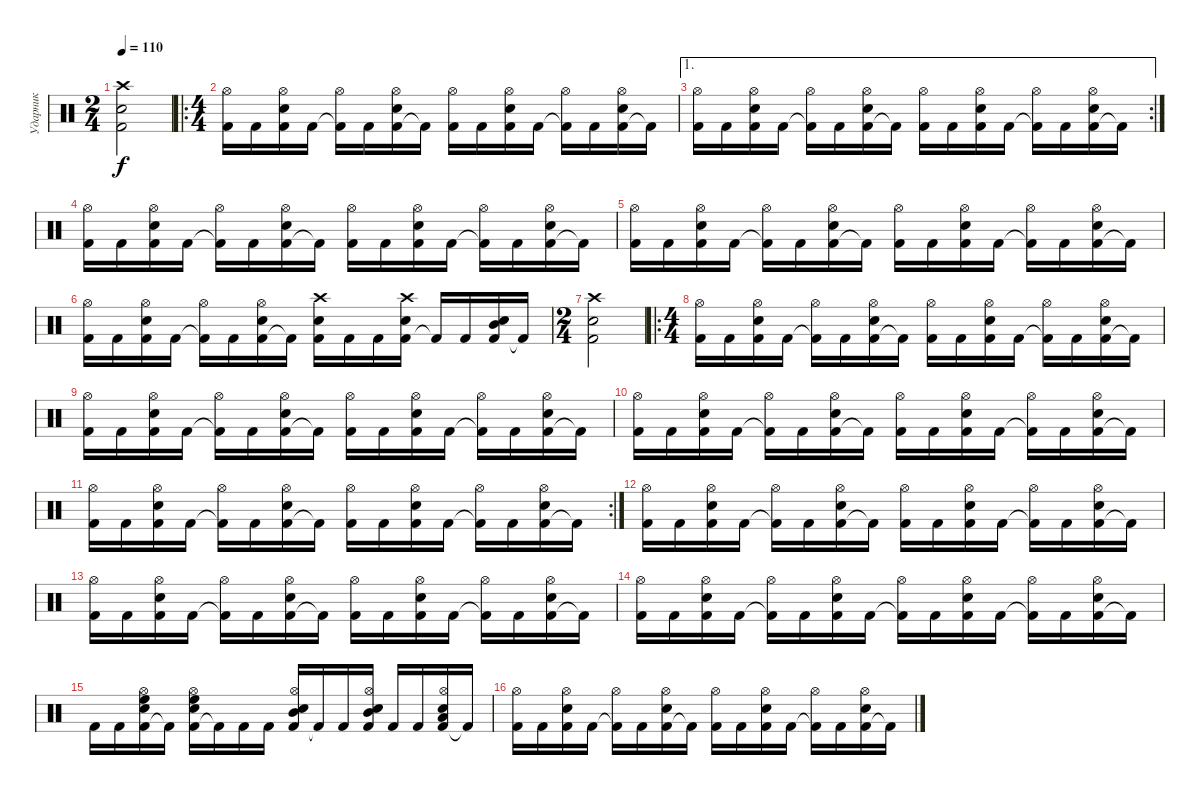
\track ("Ударник" "Ударник") {instrument percussion}
\staff
\articulation defaults
\ts (2 4)
\tempo 110
\clef neutral
\ks c
("Kick (hit) 2" "Snare (hit) 2" "Crash high (hit)").2{dy f} |
\ro
\ts (4 4)
("Kick (hit) 2" "Hi-Hat (open)").16 "Kick (hit) 2".16 ("Kick (hit) 2" "Snare (hit) 2" "Hi-Hat (open)").16 "Kick (hit) 2".16 ("Kick (hit) 2"{t} "Hi-Hat (open)").16 "Kick (hit) 2".16 ("Kick (hit) 2" "Snare (hit) 2" "Hi-Hat (open)").16 "Kick (hit) 2"{t}.16 ("Kick (hit) 2" "Hi-Hat (open)").16 "Kick (hit) 2".16 ("Kick (hit) 2" "Snare (hit) 2" "Hi-Hat (open)").16 "Kick (hit) 2".16 ("Kick (hit) 2"{t} "Hi-Hat (open)").16 "Kick (hit) 2".16 ("Kick (hit) 2" "Snare (hit) 2" "Hi-Hat (open)").16 "Kick (hit) 2"{t}.16 |
\ae 1
\rc 2
("Kick (hit) 2" "Hi-Hat (open)").16 "Kick (hit) 2".16 ("Kick (hit) 2" "Snare (hit) 2" "Hi-Hat (open)").16 "Kick (hit) 2".16 ("Kick (hit) 2"{t} "Hi-Hat (open)").16 "Kick (hit) 2".16 ("Kick (hit) 2" "Snare (hit) 2" "Hi-Hat (open)").16 "Kick (hit) 2"{t}.16 ("Kick (hit) 2" "Hi-Hat (open)").16 "Kick (hit) 2".16 ("Kick (hit) 2" "Snare (hit) 2" "Hi-Hat (open)").16 "Kick (hit) 2".16 ("Kick (hit) 2"{t} "Hi-Hat (open)").16 "Kick (hit) 2".16 ("Kick (hit) 2" "Snare (hit) 2" "Hi-Hat (open)").16 "Kick (hit) 2"{t}.16 |
("Kick (hit) 2" "Hi-Hat (open)").16 "Kick (hit) 2".16 ("Kick (hit) 2" "Snare (hit) 2" "Hi-Hat (open)").16 "Kick (hit) 2".16 ("Kick (hit) 2"{t} "Hi-Hat (open)").16 "Kick (hit) 2".16 ("Kick (hit) 2" "Snare (hit) 2" "Hi-Hat (open)").16 "Kick (hit) 2"{t}.16 ("Kick (hit) 2" "Hi-Hat (open)").16 "Kick (hit) 2".16 ("Kick (hit) 2" "Snare (hit) 2" "Hi-Hat (open)").16 "Kick (hit) 2".16 ("Kick (hit) 2"{t} "Hi-Hat (open)").16 "Kick (hit) 2".16 ("Kick (hit) 2" "Snare (hit) 2" "Hi-Hat (open)").16 "Kick (hit) 2"{t}.16 |
("Kick (hit) 2" "Hi-Hat (open)").16 "Kick (hit) 2".16 ("Kick (hit) 2" "Snare (hit) 2" "Hi-Hat (open)").16 "Kick (hit) 2".16 ("Kick (hit) 2"{t} "Hi-Hat (open)").16 "Kick (hit) 2".16 ("Kick (hit) 2" "Snare (hit) 2" "Hi-Hat (open)").16 "Kick (hit) 2"{t}.16 ("Kick (hit) 2" "Hi-Hat (open)").16 "Kick (hit) 2".16 ("Kick (hit) 2" "Snare (hit) 2" "Hi-Hat (open)").16 "Kick (hit) 2".16 ("Kick (hit) 2"{t} "Hi-Hat (open)").16 "Kick (hit) 2".16 ("Kick (hit) 2" "Snare (hit) 2" "Hi-Hat (open)").16 "Kick (hit) 2"{t}.16 |
("Kick (hit) 2" "Hi-Hat (open)").16 "Kick (hit) 2".16 ("Kick (hit) 2" "Snare (hit) 2" "Hi-Hat (open)").16 "Kick (hit) 2".16 ("Kick (hit) 2"{t} "Hi-Hat (open)").16 "Kick (hit) 2".16 ("Kick (hit) 2" "Snare (hit) 2" "Hi-Hat (open)").16 "Kick (hit) 2"{t}.16 ("Kick (hit) 2" "Snare (hit) 2" "Crash high (hit)").16 "Kick (hit) 2".16 "Kick (hit) 2".16 ("Kick (hit) 2" "Snare (hit) 2" "Crash high (hit)").16 "Kick (hit) 2"{t}.16 "Kick (hit) 2".16 ("Kick (hit) 2" "Snare (hit) 2" "Mid Tom (hit)").16 "Kick (hit) 2"{t}.16 |
\ts (2 4)
("Snare (hit) 2" "Kick (hit) 2" "Crash high (hit)").2 |
\ro
\ts (4 4)
("Kick (hit) 2" "Hi-Hat (open)").16 "Kick (hit) 2".16 ("Kick (hit) 2" "Snare (hit) 2" "Hi-Hat (open)").16 "Kick (hit) 2".16 ("Kick (hit) 2"{t} "Hi-Hat (open)").16 "Kick (hit) 2".16 ("Kick (hit) 2" "Snare (hit) 2" "Hi-Hat (open)").16 "Kick (hit) 2"{t}.16 ("Kick (hit) 2" "Hi-Hat (open)").16 "Kick (hit) 2".16 ("Kick (hit) 2" "Snare (hit) 2" "Hi-Hat (open)").16 "Kick (hit) 2".16 ("Kick (hit) 2"{t} "Hi-Hat (open)").16 "Kick (hit) 2".16 ("Kick (hit) 2" "Snare (hit) 2" "Hi-Hat (open)").16 "Kick (hit) 2"{t}.16 |
("Kick (hit) 2" "Hi-Hat (open)").16 "Kick (hit) 2".16 ("Kick (hit) 2" "Snare (hit) 2" "Hi-Hat (open)").16 "Kick (hit) 2".16 ("Kick (hit) 2"{t} "Hi-Hat (open)").16 "Kick (hit) 2".16 ("Kick (hit) 2" "Snare (hit) 2" "Hi-Hat (open)").16 "Kick (hit) 2"{t}.16 ("Kick (hit) 2" "Hi-Hat (open)").16 "Kick (hit) 2".16 ("Kick (hit) 2" "Snare (hit) 2" "Hi-Hat (open)").16 "Kick (hit) 2".16 ("Kick (hit) 2"{t} "Hi-Hat (open)").16 "Kick (hit) 2".16 ("Kick (hit) 2" "Snare (hit) 2" "Hi-Hat (open)").16 "Kick (hit) 2"{t}.16 |
("Kick (hit) 2" "Hi-Hat (open)").16 "Kick (hit) 2".16 ("Kick (hit) 2" "Snare (hit) 2" "Hi-Hat (open)").16 "Kick (hit) 2".16 ("Kick (hit) 2"{t} "Hi-Hat (open)").16 "Kick (hit) 2".16 ("Kick (hit) 2" "Snare (hit) 2" "Hi-Hat (open)").16 "Kick (hit) 2"{t}.16 ("Kick (hit) 2" "Hi-Hat (open)").16 "Kick (hit) 2".16 ("Kick (hit) 2" "Snare (hit) 2" "Hi-Hat (open)").16 "Kick (hit) 2".16 ("Kick (hit) 2"{t} "Hi-Hat (open)").16 "Kick (hit) 2".16 ("Kick (hit) 2" "Snare (hit) 2" "Hi-Hat (open)").16 "Kick (hit) 2"{t}.16 |
\rc 2
("Kick (hit) 2" "Hi-Hat (open)").16 "Kick (hit) 2".16 ("Kick (hit) 2" "Snare (hit) 2" "Hi-Hat (open)").16 "Kick (hit) 2".16 ("Kick (hit) 2"{t} "Hi-Hat (open)").16 "Kick (hit) 2".16 ("Kick (hit) 2" "Snare (hit) 2" "Hi-Hat (open)").16 "Kick (hit) 2"{t}.16 ("Kick (hit) 2" "Hi-Hat (open)").16 "Kick (hit) 2".16 ("Kick (hit) 2" "Snare (hit) 2" "Hi-Hat (open)").16 "Kick (hit) 2".16 ("Kick (hit) 2"{t} "Hi-Hat (open)").16 "Kick (hit) 2".16 ("Kick (hit) 2" "Snare (hit) 2" "Hi-Hat (open)").16 "Kick (hit) 2"{t}.16 |
("Kick (hit) 2" "Hi-Hat (open)").16 "Kick (hit) 2".16 ("Kick (hit) 2" "Snare (hit) 2" "Hi-Hat (open)").16 "Kick (hit) 2".16 ("Kick (hit) 2"{t} "Hi-Hat (open)").16 "Kick (hit) 2".16 ("Kick (hit) 2" "Snare (hit) 2" "Hi-Hat (open)").16 "Kick (hit) 2"{t}.16 ("Kick (hit) 2" "Hi-Hat (open)").16 "Kick (hit) 2".16 ("Kick (hit) 2" "Snare (hit) 2" "Hi-Hat (open)").16 "Kick (hit) 2".16 ("Kick (hit) 2"{t} "Hi-Hat (open)").16 "Kick (hit) 2".16 ("Kick (hit) 2" "Snare (hit) 2" "Hi-Hat (open)").16 "Kick (hit) 2"{t}.16 |
("Kick (hit) 2" "Hi-Hat (open)").16 "Kick (hit) 2".16 ("Kick (hit) 2" "Snare (hit) 2" "Hi-Hat (open)").16 "Kick (hit) 2".16 ("Kick (hit) 2"{t} "Hi-Hat (open)").16 "Kick (hit) 2".16 ("Kick (hit) 2" "Snare (hit) 2" "Hi-Hat (open)").16 "Kick (hit) 2"{t}.16 ("Kick (hit) 2" "Hi-Hat (open)").16 "Kick (hit) 2".16 ("Kick (hit) 2" "Snare (hit) 2" "Hi-Hat (open)").16 "Kick (hit) 2".16 ("Kick (hit) 2"{t} "Hi-Hat (open)").16 "Kick (hit) 2".16 ("Kick (hit) 2" "Snare (hit) 2" "Hi-Hat (open)").16 "Kick (hit) 2"{t}.16 |
("Kick (hit) 2" "Hi-Hat (open)").16 "Kick (hit) 2".16 ("Kick (hit) 2" "Snare (hit) 2" "Hi-Hat (open)").16 "Kick (hit) 2".16 ("Kick (hit) 2"{t} "Hi-Hat (open)").16 "Kick (hit) 2".16 ("Kick (hit) 2" "Snare (hit) 2" "Hi-Hat (open)").16 "Kick (hit) 2".16 ("Kick (hit) 2"{t} "Hi-Hat (open)").16 "Kick (hit) 2".16 ("Kick (hit) 2" "Snare (hit) 2" "Hi-Hat (open)").16 "Kick (hit) 2".16 ("Kick (hit) 2"{t} "Hi-Hat (open)").16 "Kick (hit) 2".16 ("Kick (hit) 2" "Snare (hit) 2" "Hi-Hat (open)").16 "Kick (hit) 2"{t}.16 |
"Kick (hit) 2".16 "Kick (hit) 2".16 ("Kick (hit) 2" "Snare (hit) 2" "High Floor Tom (hit)" "Hi-Hat (open)").16 "Kick (hit) 2"{t}.16 ("Kick (hit) 2" "Snare (hit) 2" "High Floor Tom (hit)" "Hi-Hat (open)").16 "Kick (hit) 2"{t}.16 "Kick (hit) 2".16 "Kick (hit) 2".16 ("Kick (hit) 2" "Snare (hit) 2" "Mid Tom (hit)" "Hi-Hat (open)").16 "Kick (hit) 2"{t}.16 "Kick (hit) 2".16 ("Kick (hit) 2" "Snare (hit) 2" "Mid Tom (hit)" "Hi-Hat (open)").16 "Kick (hit) 2".16 "Kick (hit) 2".16 ("Kick (hit) 2" "Snare (hit) 2" "Low Tom (hit)" "Hi-Hat (open)").16 "Kick (hit) 2"{t}.16 |
("Kick (hit) 2" "Hi-Hat (open)").16 "Kick (hit) 2".16 ("Kick (hit) 2" "Snare (hit) 2" "Hi-Hat (open)").16 "Kick (hit) 2".16 ("Kick (hit) 2"{t} "Hi-Hat (open)").16 "Kick (hit) 2".16 ("Kick (hit) 2" "Snare (hit) 2" "Hi-Hat (open)").16 "Kick (hit) 2"{t}.16 ("Kick (hit) 2" "Hi-Hat (open)").16 "Kick (hit) 2".16 ("Kick (hit) 2" "Snare (hit) 2" "Hi-Hat (open)").16 "Kick (hit) 2".16 ("Kick (hit) 2"{t} "Hi-Hat (open)").16 "Kick (hit) 2".16 ("Kick (hit) 2" "Snare (hit) 2" "Hi-Hat (open)").16 "Kick (hit) 2"{t}.16
